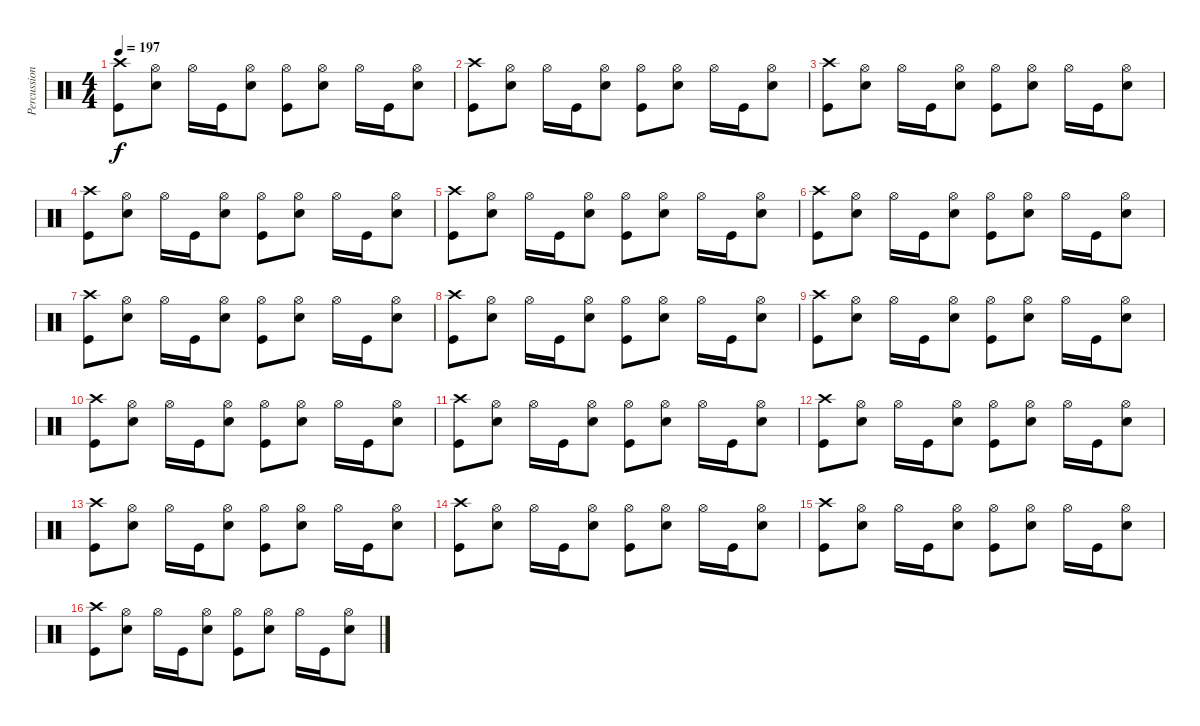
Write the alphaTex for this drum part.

\track ("Percussion" "Percussion") {instrument percussion}
\staff {score}
\articulation defaults
\ts (4 4)
\tempo 197
\clef neutral
\ks c
("Crash high (hit)" "Kick (hit)").8{dy f} ("Hi-Hat (open)" "Snare (hit) 2").8 "Hi-Hat (open)".16 "Kick (hit)".16 ("Hi-Hat (open)" "Snare (hit) 2").8 ("Hi-Hat (open)" "Kick (hit)").8 ("Hi-Hat (open)" "Snare (hit) 2").8 "Hi-Hat (open)".16 "Kick (hit)".16 ("Hi-Hat (open)" "Snare (hit) 2").8 |
("Crash high (hit)" "Kick (hit)").8 ("Hi-Hat (open)" "Snare (hit) 2").8 "Hi-Hat (open)".16 "Kick (hit)".16 ("Hi-Hat (open)" "Snare (hit) 2").8 ("Hi-Hat (open)" "Kick (hit)").8 ("Hi-Hat (open)" "Snare (hit) 2").8 "Hi-Hat (open)".16 "Kick (hit)".16 ("Hi-Hat (open)" "Snare (hit) 2").8 |
("Crash high (hit)" "Kick (hit)").8 ("Hi-Hat (open)" "Snare (hit) 2").8 "Hi-Hat (open)".16 "Kick (hit)".16 ("Hi-Hat (open)" "Snare (hit) 2").8 ("Hi-Hat (open)" "Kick (hit)").8 ("Hi-Hat (open)" "Snare (hit) 2").8 "Hi-Hat (open)".16 "Kick (hit)".16 ("Hi-Hat (open)" "Snare (hit) 2").8 |
("Crash high (hit)" "Kick (hit)").8 ("Hi-Hat (open)" "Snare (hit) 2").8 "Hi-Hat (open)".16 "Kick (hit)".16 ("Hi-Hat (open)" "Snare (hit) 2").8 ("Hi-Hat (open)" "Kick (hit)").8 ("Hi-Hat (open)" "Snare (hit) 2").8 "Hi-Hat (open)".16 "Kick (hit)".16 ("Hi-Hat (open)" "Snare (hit) 2").8 |
("Crash high (hit)" "Kick (hit)").8 ("Hi-Hat (open)" "Snare (hit) 2").8 "Hi-Hat (open)".16 "Kick (hit)".16 ("Hi-Hat (open)" "Snare (hit) 2").8 ("Hi-Hat (open)" "Kick (hit)").8 ("Hi-Hat (open)" "Snare (hit) 2").8 "Hi-Hat (open)".16 "Kick (hit)".16 ("Hi-Hat (open)" "Snare (hit) 2").8 |
("Crash high (hit)" "Kick (hit)").8 ("Hi-Hat (open)" "Snare (hit) 2").8 "Hi-Hat (open)".16 "Kick (hit)".16 ("Hi-Hat (open)" "Snare (hit) 2").8 ("Hi-Hat (open)" "Kick (hit)").8 ("Hi-Hat (open)" "Snare (hit) 2").8 "Hi-Hat (open)".16 "Kick (hit)".16 ("Hi-Hat (open)" "Snare (hit) 2").8 |
("Crash high (hit)" "Kick (hit)").8 ("Hi-Hat (open)" "Snare (hit) 2").8 "Hi-Hat (open)".16 "Kick (hit)".16 ("Hi-Hat (open)" "Snare (hit) 2").8 ("Hi-Hat (open)" "Kick (hit)").8 ("Hi-Hat (open)" "Snare (hit) 2").8 "Hi-Hat (open)".16 "Kick (hit)".16 ("Hi-Hat (open)" "Snare (hit) 2").8 |
("Crash high (hit)" "Kick (hit)").8 ("Hi-Hat (open)" "Snare (hit) 2").8 "Hi-Hat (open)".16 "Kick (hit)".16 ("Hi-Hat (open)" "Snare (hit) 2").8 ("Hi-Hat (open)" "Kick (hit)").8 ("Hi-Hat (open)" "Snare (hit) 2").8 "Hi-Hat (open)".16 "Kick (hit)".16 ("Hi-Hat (open)" "Snare (hit) 2").8 |
("Crash high (hit)" "Kick (hit)").8 ("Hi-Hat (open)" "Snare (hit) 2").8 "Hi-Hat (open)".16 "Kick (hit)".16 ("Hi-Hat (open)" "Snare (hit) 2").8 ("Hi-Hat (open)" "Kick (hit)").8 ("Hi-Hat (open)" "Snare (hit) 2").8 "Hi-Hat (open)".16 "Kick (hit)".16 ("Hi-Hat (open)" "Snare (hit) 2").8 |
("Crash high (hit)" "Kick (hit)").8 ("Hi-Hat (open)" "Snare (hit) 2").8 "Hi-Hat (open)".16 "Kick (hit)".16 ("Hi-Hat (open)" "Snare (hit) 2").8 ("Hi-Hat (open)" "Kick (hit)").8 ("Hi-Hat (open)" "Snare (hit) 2").8 "Hi-Hat (open)".16 "Kick (hit)".16 ("Hi-Hat (open)" "Snare (hit) 2").8 |
("Crash high (hit)" "Kick (hit)").8 ("Hi-Hat (open)" "Snare (hit) 2").8 "Hi-Hat (open)".16 "Kick (hit)".16 ("Hi-Hat (open)" "Snare (hit) 2").8 ("Hi-Hat (open)" "Kick (hit)").8 ("Hi-Hat (open)" "Snare (hit) 2").8 "Hi-Hat (open)".16 "Kick (hit)".16 ("Hi-Hat (open)" "Snare (hit) 2").8 |
("Crash high (hit)" "Kick (hit)").8 ("Hi-Hat (open)" "Snare (hit) 2").8 "Hi-Hat (open)".16 "Kick (hit)".16 ("Hi-Hat (open)" "Snare (hit) 2").8 ("Hi-Hat (open)" "Kick (hit)").8 ("Hi-Hat (open)" "Snare (hit) 2").8 "Hi-Hat (open)".16 "Kick (hit)".16 ("Hi-Hat (open)" "Snare (hit) 2").8 |
("Crash high (hit)" "Kick (hit)").8 ("Hi-Hat (open)" "Snare (hit) 2").8 "Hi-Hat (open)".16 "Kick (hit)".16 ("Hi-Hat (open)" "Snare (hit) 2").8 ("Hi-Hat (open)" "Kick (hit)").8 ("Hi-Hat (open)" "Snare (hit) 2").8 "Hi-Hat (open)".16 "Kick (hit)".16 ("Hi-Hat (open)" "Snare (hit) 2").8 |
("Crash high (hit)" "Kick (hit)").8 ("Hi-Hat (open)" "Snare (hit) 2").8 "Hi-Hat (open)".16 "Kick (hit)".16 ("Hi-Hat (open)" "Snare (hit) 2").8 ("Hi-Hat (open)" "Kick (hit)").8 ("Hi-Hat (open)" "Snare (hit) 2").8 "Hi-Hat (open)".16 "Kick (hit)".16 ("Hi-Hat (open)" "Snare (hit) 2").8 |
("Crash high (hit)" "Kick (hit)").8 ("Hi-Hat (open)" "Snare (hit) 2").8 "Hi-Hat (open)".16 "Kick (hit)".16 ("Hi-Hat (open)" "Snare (hit) 2").8 ("Hi-Hat (open)" "Kick (hit)").8 ("Hi-Hat (open)" "Snare (hit) 2").8 "Hi-Hat (open)".16 "Kick (hit)".16 ("Hi-Hat (open)" "Snare (hit) 2").8 |
("Crash high (hit)" "Kick (hit)").8 ("Hi-Hat (open)" "Snare (hit) 2").8 "Hi-Hat (open)".16 "Kick (hit)".16 ("Hi-Hat (open)" "Snare (hit) 2").8 ("Hi-Hat (open)" "Kick (hit)").8 ("Hi-Hat (open)" "Snare (hit) 2").8 "Hi-Hat (open)".16 "Kick (hit)".16 ("Hi-Hat (open)" "Snare (hit) 2").8
